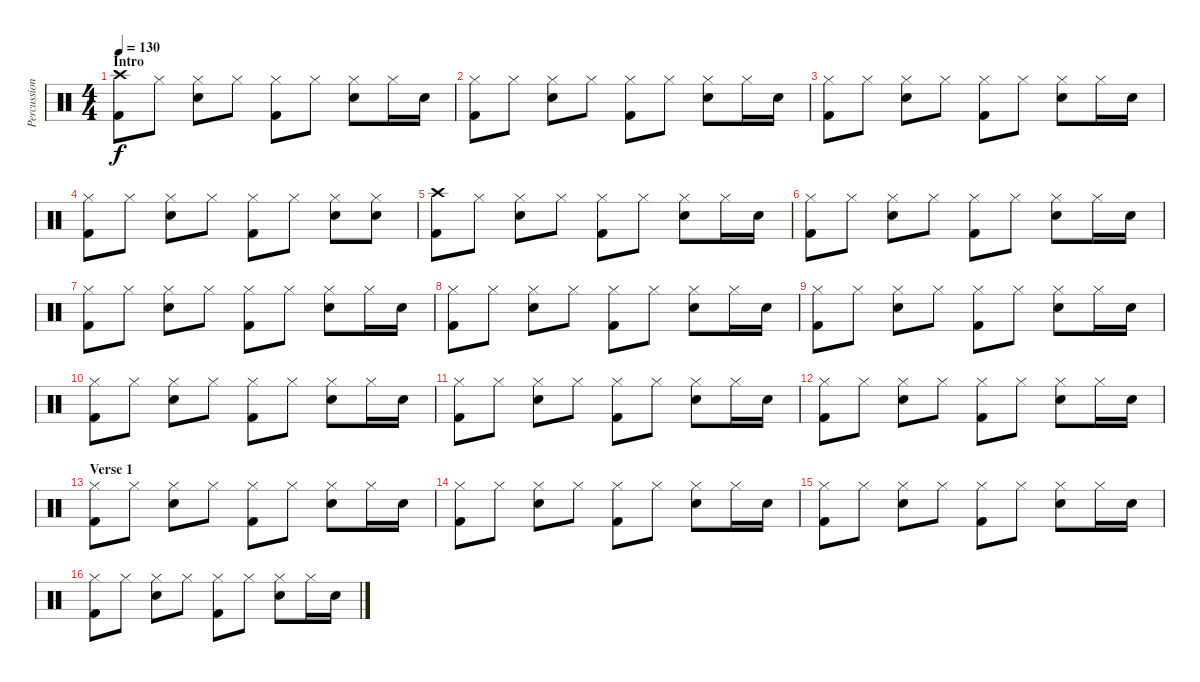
\track ("Percussion" "Percussion") {instrument percussion}
\staff {score}
\articulation defaults
\ts (4 4)
\section ("" "Intro")
\tempo 130
\clef neutral
\ks c
("Crash high (hit)" "Kick (hit) 2").8{dy f} "Hi-Hat (closed)".8 ("Hi-Hat (closed)" "Electric Snare (hit)").8 "Hi-Hat (closed)".8 ("Hi-Hat (closed)" "Kick (hit) 2").8 "Hi-Hat (closed)".8 ("Hi-Hat (closed)" "Electric Snare (hit)").8 "Hi-Hat (closed)".16 "Electric Snare (hit)".16 |
("Hi-Hat (closed)" "Kick (hit) 2").8 "Hi-Hat (closed)".8 ("Hi-Hat (closed)" "Electric Snare (hit)").8 "Hi-Hat (closed)".8 ("Hi-Hat (closed)" "Kick (hit) 2").8 "Hi-Hat (closed)".8 ("Hi-Hat (closed)" "Electric Snare (hit)").8 "Hi-Hat (closed)".16 "Electric Snare (hit)".16 |
("Hi-Hat (closed)" "Kick (hit) 2").8 "Hi-Hat (closed)".8 ("Hi-Hat (closed)" "Electric Snare (hit)").8 "Hi-Hat (closed)".8 ("Hi-Hat (closed)" "Kick (hit) 2").8 "Hi-Hat (closed)".8 ("Hi-Hat (closed)" "Electric Snare (hit)").8 "Hi-Hat (closed)".16 "Electric Snare (hit)".16 |
("Hi-Hat (closed)" "Kick (hit) 2").8 "Hi-Hat (closed)".8 ("Hi-Hat (closed)" "Electric Snare (hit)").8 "Hi-Hat (closed)".8 ("Hi-Hat (closed)" "Kick (hit) 2").8 "Hi-Hat (closed)".8 ("Hi-Hat (closed)" "Electric Snare (hit)").8 ("Hi-Hat (closed)" "Electric Snare (hit)").8 |
("Crash high (hit)" "Kick (hit) 2").8 "Hi-Hat (closed)".8 ("Hi-Hat (closed)" "Electric Snare (hit)").8 "Hi-Hat (closed)".8 ("Hi-Hat (closed)" "Kick (hit) 2").8 "Hi-Hat (closed)".8 ("Hi-Hat (closed)" "Electric Snare (hit)").8 "Hi-Hat (closed)".16 "Electric Snare (hit)".16 |
("Hi-Hat (closed)" "Kick (hit) 2").8 "Hi-Hat (closed)".8 ("Hi-Hat (closed)" "Electric Snare (hit)").8 "Hi-Hat (closed)".8 ("Hi-Hat (closed)" "Kick (hit) 2").8 "Hi-Hat (closed)".8 ("Hi-Hat (closed)" "Electric Snare (hit)").8 "Hi-Hat (closed)".16 "Electric Snare (hit)".16 |
("Hi-Hat (closed)" "Kick (hit) 2").8 "Hi-Hat (closed)".8 ("Hi-Hat (closed)" "Electric Snare (hit)").8 "Hi-Hat (closed)".8 ("Hi-Hat (closed)" "Kick (hit) 2").8 "Hi-Hat (closed)".8 ("Hi-Hat (closed)" "Electric Snare (hit)").8 "Hi-Hat (closed)".16 "Electric Snare (hit)".16 |
("Hi-Hat (closed)" "Kick (hit) 2").8 "Hi-Hat (closed)".8 ("Hi-Hat (closed)" "Electric Snare (hit)").8 "Hi-Hat (closed)".8 ("Hi-Hat (closed)" "Kick (hit) 2").8 "Hi-Hat (closed)".8 ("Hi-Hat (closed)" "Electric Snare (hit)").8 "Hi-Hat (closed)".16 "Electric Snare (hit)".16 |
("Hi-Hat (closed)" "Kick (hit) 2").8 "Hi-Hat (closed)".8 ("Hi-Hat (closed)" "Electric Snare (hit)").8 "Hi-Hat (closed)".8 ("Hi-Hat (closed)" "Kick (hit) 2").8 "Hi-Hat (closed)".8 ("Hi-Hat (closed)" "Electric Snare (hit)").8 "Hi-Hat (closed)".16 "Electric Snare (hit)".16 |
("Hi-Hat (closed)" "Kick (hit) 2").8 "Hi-Hat (closed)".8 ("Hi-Hat (closed)" "Electric Snare (hit)").8 "Hi-Hat (closed)".8 ("Hi-Hat (closed)" "Kick (hit) 2").8 "Hi-Hat (closed)".8 ("Hi-Hat (closed)" "Electric Snare (hit)").8 "Hi-Hat (closed)".16 "Electric Snare (hit)".16 |
("Hi-Hat (closed)" "Kick (hit) 2").8 "Hi-Hat (closed)".8 ("Hi-Hat (closed)" "Electric Snare (hit)").8 "Hi-Hat (closed)".8 ("Hi-Hat (closed)" "Kick (hit) 2").8 "Hi-Hat (closed)".8 ("Hi-Hat (closed)" "Electric Snare (hit)").8 "Hi-Hat (closed)".16 "Electric Snare (hit)".16 |
("Hi-Hat (closed)" "Kick (hit) 2").8 "Hi-Hat (closed)".8 ("Hi-Hat (closed)" "Electric Snare (hit)").8 "Hi-Hat (closed)".8 ("Hi-Hat (closed)" "Kick (hit) 2").8 "Hi-Hat (closed)".8 ("Hi-Hat (closed)" "Electric Snare (hit)").8 "Hi-Hat (closed)".16 "Electric Snare (hit)".16 |
\section ("" "Verse 1")
("Hi-Hat (closed)" "Kick (hit) 2").8 "Hi-Hat (closed)".8 ("Hi-Hat (closed)" "Electric Snare (hit)").8 "Hi-Hat (closed)".8 ("Hi-Hat (closed)" "Kick (hit) 2").8 "Hi-Hat (closed)".8 ("Hi-Hat (closed)" "Electric Snare (hit)").8 "Hi-Hat (closed)".16 "Electric Snare (hit)".16 |
("Hi-Hat (closed)" "Kick (hit) 2").8 "Hi-Hat (closed)".8 ("Hi-Hat (closed)" "Electric Snare (hit)").8 "Hi-Hat (closed)".8 ("Hi-Hat (closed)" "Kick (hit) 2").8 "Hi-Hat (closed)".8 ("Hi-Hat (closed)" "Electric Snare (hit)").8 "Hi-Hat (closed)".16 "Electric Snare (hit)".16 |
("Hi-Hat (closed)" "Kick (hit) 2").8 "Hi-Hat (closed)".8 ("Hi-Hat (closed)" "Electric Snare (hit)").8 "Hi-Hat (closed)".8 ("Hi-Hat (closed)" "Kick (hit) 2").8 "Hi-Hat (closed)".8 ("Hi-Hat (closed)" "Electric Snare (hit)").8 "Hi-Hat (closed)".16 "Electric Snare (hit)".16 |
("Hi-Hat (closed)" "Kick (hit) 2").8 "Hi-Hat (closed)".8 ("Hi-Hat (closed)" "Electric Snare (hit)").8 "Hi-Hat (closed)".8 ("Hi-Hat (closed)" "Kick (hit) 2").8 "Hi-Hat (closed)".8 ("Hi-Hat (closed)" "Electric Snare (hit)").8 "Hi-Hat (closed)".16 "Electric Snare (hit)".16
